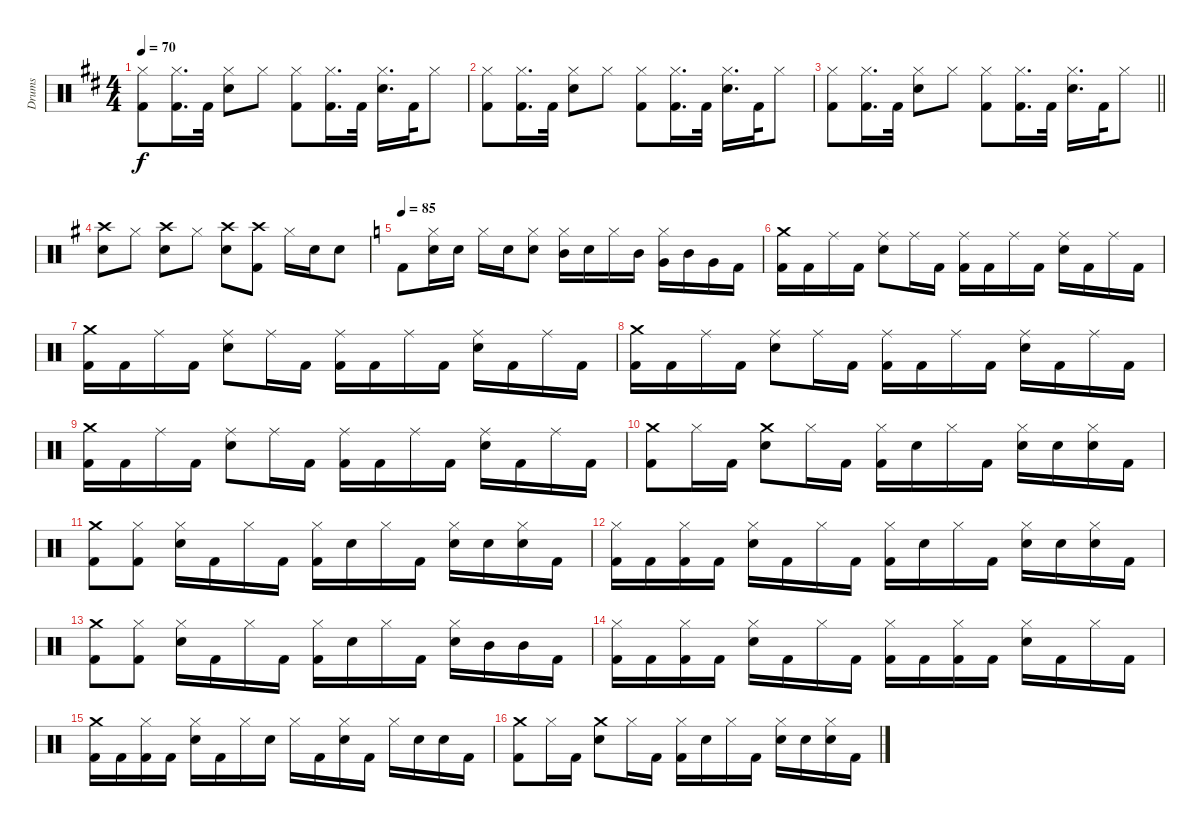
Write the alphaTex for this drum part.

\track ("Drums" "Drums") {instrument percussion}
\staff {score}
\articulation defaults
\ts (4 4)
\tempo 70
\clef neutral
\ks d
("Hi-Hat (closed)" "Kick (hit) 2").8{dy f} ("Hi-Hat (closed)" "Kick (hit) 2").16{d} "Kick (hit) 2".32 ("Hi-Hat (closed)" "Snare (hit) 2").8 "Hi-Hat (closed)".8 ("Hi-Hat (closed)" "Kick (hit) 2").8 ("Hi-Hat (closed)" "Kick (hit) 2").16{d} "Kick (hit) 2".32 ("Hi-Hat (closed)" "Snare (hit) 2").16{d} "Kick (hit) 2".32 "Hi-Hat (closed)".8 |
("Hi-Hat (closed)" "Kick (hit) 2").8 ("Hi-Hat (closed)" "Kick (hit) 2").16{d} "Kick (hit) 2".32 ("Hi-Hat (closed)" "Snare (hit) 2").8 "Hi-Hat (closed)".8 ("Hi-Hat (closed)" "Kick (hit) 2").8 ("Hi-Hat (closed)" "Kick (hit) 2").16{d} "Kick (hit) 2".32 ("Hi-Hat (closed)" "Snare (hit) 2").16{d} "Kick (hit) 2".32 "Hi-Hat (closed)".8 |
\barLineRight lightlight
("Hi-Hat (closed)" "Kick (hit) 2").8 ("Hi-Hat (closed)" "Kick (hit) 2").16{d} "Kick (hit) 2".32 ("Hi-Hat (closed)" "Snare (hit) 2").8 "Hi-Hat (closed)".8 ("Hi-Hat (closed)" "Kick (hit) 2").8 ("Hi-Hat (closed)" "Kick (hit) 2").16{d} "Kick (hit) 2".32 ("Hi-Hat (closed)" "Snare (hit) 2").16{d} "Kick (hit) 2".32 "Hi-Hat (closed)".8 |
\ks g
("Crash high (hit)" "Snare (hit) 2").8 "Hi-Hat (closed)".8 ("Crash high (hit)" "Snare (hit) 2").8 "Hi-Hat (closed)".8 ("Crash high (hit)" "Snare (hit) 2").8 ("Crash high (hit)" "Kick (hit) 2").8 "Hi-Hat (closed)".16 "Snare (hit) 2".16 "Snare (hit) 2".8 |
\tempo 85
\ks c "Kick (hit) 2".8
("Hi-Hat (closed)" "Snare (hit) 2").16 "Snare (hit) 2".16 "Hi-Hat (closed)".16 "Snare (hit) 2".16 ("Hi-Hat (closed)" "Snare (hit) 2").8 ("Hi-Hat (closed)" "Mid Tom (hit)").16 "Snare (hit) 2".16 "Hi-Hat (closed)".16 "Mid Tom (hit)".16 ("Hi-Hat (closed)" "Very Low Tom (hit)").16 "Mid Tom (hit)".16 "Very Low Tom (hit)".16 "Kick (hit) 2".16 |
("Crash medium (hit)" "Kick (hit) 2").16 "Kick (hit) 2".16 "Ride (middle)".16 "Kick (hit) 2".16 ("Ride (middle)" "Snare (hit) 2").8 "Ride (middle)".16 "Kick (hit) 2".16 ("Ride (middle)" "Kick (hit) 2").16 "Kick (hit) 2".16 "Ride (middle)".16 "Kick (hit) 2".16 ("Ride (middle)" "Snare (hit) 2").16 "Kick (hit) 2".16 "Ride (middle)".16 "Kick (hit) 2".16 |
("Crash medium (hit)" "Kick (hit) 2").16 "Kick (hit) 2".16 "Ride (middle)".16 "Kick (hit) 2".16 ("Ride (middle)" "Snare (hit) 2").8 "Ride (middle)".16 "Kick (hit) 2".16 ("Ride (middle)" "Kick (hit) 2").16 "Kick (hit) 2".16 "Ride (middle)".16 "Kick (hit) 2".16 ("Ride (middle)" "Snare (hit) 2").16 "Kick (hit) 2".16 "Ride (middle)".16 "Kick (hit) 2".16 |
("Crash medium (hit)" "Kick (hit) 2").16 "Kick (hit) 2".16 "Ride (middle)".16 "Kick (hit) 2".16 ("Ride (middle)" "Snare (hit) 2").8 "Ride (middle)".16 "Kick (hit) 2".16 ("Ride (middle)" "Kick (hit) 2").16 "Kick (hit) 2".16 "Ride (middle)".16 "Kick (hit) 2".16 ("Ride (middle)" "Snare (hit) 2").16 "Kick (hit) 2".16 "Ride (middle)".16 "Kick (hit) 2".16 |
("Crash medium (hit)" "Kick (hit) 2").16 "Kick (hit) 2".16 "Ride (middle)".16 "Kick (hit) 2".16 ("Ride (middle)" "Snare (hit) 2").8 "Ride (middle)".16 "Kick (hit) 2".16 ("Ride (middle)" "Kick (hit) 2").16 "Kick (hit) 2".16 "Ride (middle)".16 "Kick (hit) 2".16 ("Ride (middle)" "Snare (hit) 2").16 "Kick (hit) 2".16 "Ride (middle)".16 "Kick (hit) 2".16 |
("Crash medium (hit)" "Kick (hit) 2").8 "Hi-Hat (closed)".16 "Kick (hit) 2".16 ("Crash medium (hit)" "Snare (hit) 2").8 "Hi-Hat (closed)".16 "Kick (hit) 2".16 ("Hi-Hat (closed)" "Kick (hit) 2").16 "Snare (hit) 2".16 "Hi-Hat (closed)".16 "Kick (hit) 2".16 ("Hi-Hat (closed)" "Snare (hit) 2").16 "Snare (hit) 2".16 ("Hi-Hat (closed)" "Snare (hit) 2").16 "Kick (hit) 2".16 |
("Crash medium (hit)" "Kick (hit) 2").8 ("Hi-Hat (closed)" "Kick (hit) 2").8 ("Hi-Hat (closed)" "Snare (hit) 2").16 "Kick (hit) 2".16 "Hi-Hat (closed)".16 "Kick (hit) 2".16 ("Hi-Hat (closed)" "Kick (hit) 2").16 "Snare (hit) 2".16 "Hi-Hat (closed)".16 "Kick (hit) 2".16 ("Hi-Hat (closed)" "Snare (hit) 2").16 "Snare (hit) 2".16 ("Hi-Hat (closed)" "Snare (hit) 2").16 "Kick (hit) 2".16 |
("Hi-Hat (closed)" "Kick (hit) 2").16 "Kick (hit) 2".16 ("Hi-Hat (closed)" "Kick (hit) 2").16 "Kick (hit) 2".16 ("Hi-Hat (closed)" "Snare (hit) 2").16 "Kick (hit) 2".16 "Hi-Hat (closed)".16 "Kick (hit) 2".16 ("Hi-Hat (closed)" "Kick (hit) 2").16 "Snare (hit) 2".16 "Hi-Hat (closed)".16 "Kick (hit) 2".16 ("Hi-Hat (closed)" "Snare (hit) 2").16 "Snare (hit) 2".16 ("Hi-Hat (closed)" "Snare (hit) 2").16 "Kick (hit) 2".16 |
("Crash medium (hit)" "Kick (hit) 2").8 ("Hi-Hat (closed)" "Kick (hit) 2").8 ("Hi-Hat (closed)" "Snare (hit) 2").16 "Kick (hit) 2".16 "Hi-Hat (closed)".16 "Kick (hit) 2".16 ("Hi-Hat (closed)" "Kick (hit) 2").16 "Snare (hit) 2".16 "Hi-Hat (closed)".16 "Kick (hit) 2".16 ("Hi-Hat (closed)" "Snare (hit) 2").16 "Mid Tom (hit)".16 "Mid Tom (hit)".16 "Kick (hit) 2".16 |
("Hi-Hat (closed)" "Kick (hit) 2").16 "Kick (hit) 2".16 ("Hi-Hat (closed)" "Kick (hit) 2").16 "Kick (hit) 2".16 ("Hi-Hat (closed)" "Snare (hit) 2").16 "Kick (hit) 2".16 "Hi-Hat (closed)".16 "Kick (hit) 2".16 ("Hi-Hat (closed)" "Kick (hit) 2").16 "Kick (hit) 2".16 ("Hi-Hat (closed)" "Kick (hit) 2").16 "Kick (hit) 2".16 ("Hi-Hat (closed)" "Snare (hit) 2").16 "Kick (hit) 2".16 "Hi-Hat (closed)".16 "Kick (hit) 2".16 |
("Crash medium (hit)" "Kick (hit) 2").16 "Kick (hit) 2".16 ("Hi-Hat (closed)" "Kick (hit) 2").16 "Kick (hit) 2".16 ("Hi-Hat (closed)" "Snare (hit) 2").16 "Kick (hit) 2".16 "Hi-Hat (closed)".16 "Snare (hit) 2".16 "Hi-Hat (closed)".16 "Kick (hit) 2".16 ("Hi-Hat (closed)" "Snare (hit) 2").16 "Kick (hit) 2".16 "Hi-Hat (closed)".16 "Snare (hit) 2".16 "Snare (hit) 2".16 "Kick (hit) 2".16 |
("Crash medium (hit)" "Kick (hit) 2").8 "Hi-Hat (closed)".16 "Kick (hit) 2".16 ("Crash medium (hit)" "Snare (hit) 2").8 "Hi-Hat (closed)".16 "Kick (hit) 2".16 ("Hi-Hat (closed)" "Kick (hit) 2").16 "Snare (hit) 2".16 "Hi-Hat (closed)".16 "Kick (hit) 2".16 ("Hi-Hat (closed)" "Snare (hit) 2").16 "Snare (hit) 2".16 ("Hi-Hat (closed)" "Snare (hit) 2").16 "Kick (hit) 2".16
